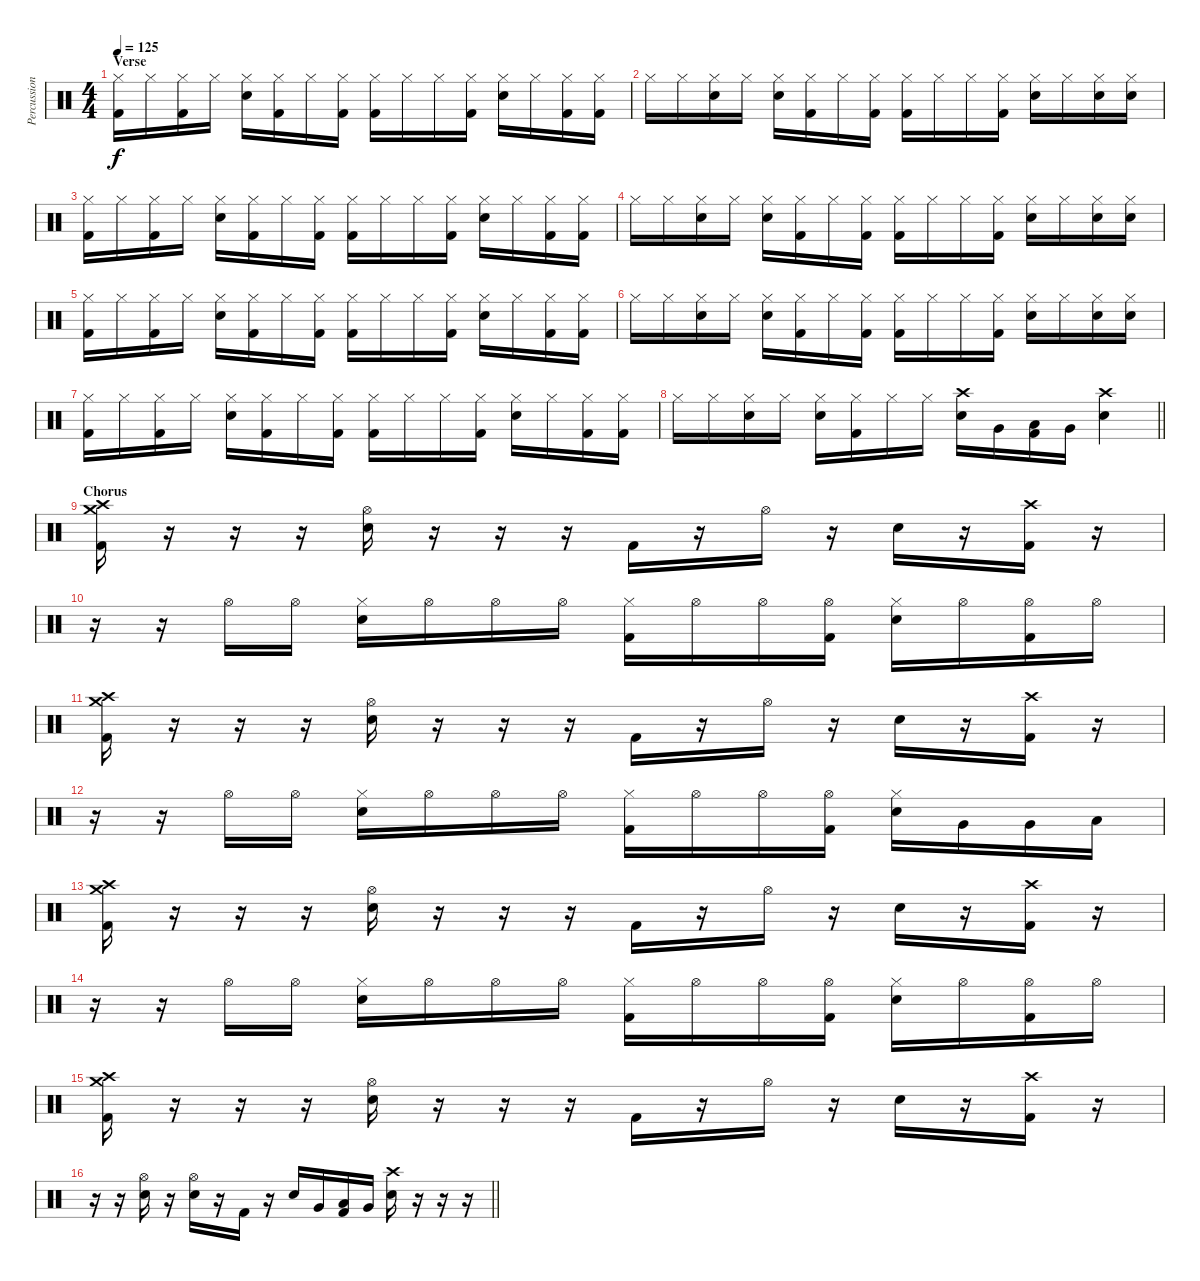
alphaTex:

\track ("Percussion" "Percussion") {instrument percussion}
\staff {score}
\articulation defaults
\ts (4 4)
\section ("" "Verse")
\tempo 125
\clef neutral
\ks c
("Hi-Hat (closed)" "Kick (hit) 2").16{dy f} "Hi-Hat (closed)".16 ("Hi-Hat (closed)" "Kick (hit) 2").16 "Hi-Hat (closed)".16 ("Hi-Hat (closed)" "Electric Snare (hit)").16 ("Hi-Hat (closed)" "Kick (hit) 2").16 "Hi-Hat (closed)".16 ("Hi-Hat (closed)" "Kick (hit) 2").16 ("Hi-Hat (closed)" "Kick (hit) 2").16 "Hi-Hat (closed)".16 "Hi-Hat (closed)".16 ("Hi-Hat (closed)" "Kick (hit) 2").16 ("Hi-Hat (closed)" "Electric Snare (hit)").16 "Hi-Hat (closed)".16 ("Hi-Hat (closed)" "Kick (hit) 2").16 ("Hi-Hat (closed)" "Kick (hit) 2").16 |
"Hi-Hat (closed)".16 "Hi-Hat (closed)".16 ("Hi-Hat (closed)" "Electric Snare (hit)").16 "Hi-Hat (closed)".16 ("Hi-Hat (closed)" "Electric Snare (hit)").16 ("Hi-Hat (closed)" "Kick (hit) 2").16 "Hi-Hat (closed)".16 ("Hi-Hat (closed)" "Kick (hit) 2").16 ("Hi-Hat (closed)" "Kick (hit) 2").16 "Hi-Hat (closed)".16 "Hi-Hat (closed)".16 ("Hi-Hat (closed)" "Kick (hit) 2").16 ("Hi-Hat (closed)" "Electric Snare (hit)").16 "Hi-Hat (closed)".16 ("Hi-Hat (closed)" "Electric Snare (hit)").16 ("Hi-Hat (closed)" "Electric Snare (hit)").16 |
("Hi-Hat (closed)" "Kick (hit) 2").16 "Hi-Hat (closed)".16 ("Hi-Hat (closed)" "Kick (hit) 2").16 "Hi-Hat (closed)".16 ("Hi-Hat (closed)" "Electric Snare (hit)").16 ("Hi-Hat (closed)" "Kick (hit) 2").16 "Hi-Hat (closed)".16 ("Hi-Hat (closed)" "Kick (hit) 2").16 ("Hi-Hat (closed)" "Kick (hit) 2").16 "Hi-Hat (closed)".16 "Hi-Hat (closed)".16 ("Hi-Hat (closed)" "Kick (hit) 2").16 ("Hi-Hat (closed)" "Electric Snare (hit)").16 "Hi-Hat (closed)".16 ("Hi-Hat (closed)" "Kick (hit) 2").16 ("Hi-Hat (closed)" "Kick (hit) 2").16 |
"Hi-Hat (closed)".16 "Hi-Hat (closed)".16 ("Hi-Hat (closed)" "Electric Snare (hit)").16 "Hi-Hat (closed)".16 ("Hi-Hat (closed)" "Electric Snare (hit)").16 ("Hi-Hat (closed)" "Kick (hit) 2").16 "Hi-Hat (closed)".16 ("Hi-Hat (closed)" "Kick (hit) 2").16 ("Hi-Hat (closed)" "Kick (hit) 2").16 "Hi-Hat (closed)".16 "Hi-Hat (closed)".16 ("Hi-Hat (closed)" "Kick (hit) 2").16 ("Hi-Hat (closed)" "Electric Snare (hit)").16 "Hi-Hat (closed)".16 ("Hi-Hat (closed)" "Electric Snare (hit)").16 ("Hi-Hat (closed)" "Electric Snare (hit)").16 |
("Hi-Hat (closed)" "Kick (hit) 2").16 "Hi-Hat (closed)".16 ("Hi-Hat (closed)" "Kick (hit) 2").16 "Hi-Hat (closed)".16 ("Hi-Hat (closed)" "Electric Snare (hit)").16 ("Hi-Hat (closed)" "Kick (hit) 2").16 "Hi-Hat (closed)".16 ("Hi-Hat (closed)" "Kick (hit) 2").16 ("Hi-Hat (closed)" "Kick (hit) 2").16 "Hi-Hat (closed)".16 "Hi-Hat (closed)".16 ("Hi-Hat (closed)" "Kick (hit) 2").16 ("Hi-Hat (closed)" "Electric Snare (hit)").16 "Hi-Hat (closed)".16 ("Hi-Hat (closed)" "Kick (hit) 2").16 ("Hi-Hat (closed)" "Kick (hit) 2").16 |
"Hi-Hat (closed)".16 "Hi-Hat (closed)".16 ("Hi-Hat (closed)" "Electric Snare (hit)").16 "Hi-Hat (closed)".16 ("Hi-Hat (closed)" "Electric Snare (hit)").16 ("Hi-Hat (closed)" "Kick (hit) 2").16 "Hi-Hat (closed)".16 ("Hi-Hat (closed)" "Kick (hit) 2").16 ("Hi-Hat (closed)" "Kick (hit) 2").16 "Hi-Hat (closed)".16 "Hi-Hat (closed)".16 ("Hi-Hat (closed)" "Kick (hit) 2").16 ("Hi-Hat (closed)" "Electric Snare (hit)").16 "Hi-Hat (closed)".16 ("Hi-Hat (closed)" "Electric Snare (hit)").16 ("Hi-Hat (closed)" "Electric Snare (hit)").16 |
("Hi-Hat (closed)" "Kick (hit) 2").16 "Hi-Hat (closed)".16 ("Hi-Hat (closed)" "Kick (hit) 2").16 "Hi-Hat (closed)".16 ("Hi-Hat (closed)" "Electric Snare (hit)").16 ("Hi-Hat (closed)" "Kick (hit) 2").16 "Hi-Hat (closed)".16 ("Hi-Hat (closed)" "Kick (hit) 2").16 ("Hi-Hat (closed)" "Kick (hit) 2").16 "Hi-Hat (closed)".16 "Hi-Hat (closed)".16 ("Hi-Hat (closed)" "Kick (hit) 2").16 ("Hi-Hat (closed)" "Electric Snare (hit)").16 "Hi-Hat (closed)".16 ("Hi-Hat (closed)" "Kick (hit) 2").16 ("Hi-Hat (closed)" "Kick (hit) 2").16 |
\barLineRight lightlight "Hi-Hat (closed)".16 "Hi-Hat (closed)".16
("Hi-Hat (closed)" "Electric Snare (hit)").16 "Hi-Hat (closed)".16 ("Hi-Hat (closed)" "Electric Snare (hit)").16 ("Hi-Hat (closed)" "Kick (hit) 2").16 "Hi-Hat (closed)".16 "Hi-Hat (closed)".16 ("Crash high (hit)" "Electric Snare (hit)").16 "Very Low Tom (hit)".16 ("Low Floor Tom (hit)" "Kick (hit) 2").16 "Very Low Tom (hit)".16 ("Crash high (hit)" "Electric Snare (hit)").4 |
\section ("" "Chorus")
("Crash medium (hit)" "Crash high (hit)" "Kick (hit) 2").16 r.16 r.16 r.16 ("Hi-Hat (open)" "Electric Snare (hit)").16 r.16 r.16 r.16 "Kick (hit) 2".16 r.16 "Hi-Hat (open)".16 r.16 "Electric Snare (hit)".16 r.16 ("Crash high (hit)" "Kick (hit) 2").16 r.16 |
r.16 r.16 "Hi-Hat (open)".16 "Hi-Hat (open)".16 ("Hi-Hat (closed)" "Electric Snare (hit)").16 "Hi-Hat (open)".16 "Hi-Hat (open)".16 "Hi-Hat (open)".16 ("Hi-Hat (closed)" "Kick (hit) 2").16 "Hi-Hat (open)".16 "Hi-Hat (open)".16 ("Hi-Hat (open)" "Kick (hit) 2").16 ("Hi-Hat (closed)" "Electric Snare (hit)").16 "Hi-Hat (open)".16 ("Hi-Hat (open)" "Kick (hit) 2").16 "Hi-Hat (open)".16 |
("Crash medium (hit)" "Crash high (hit)" "Kick (hit) 2").16 r.16 r.16 r.16 ("Hi-Hat (open)" "Electric Snare (hit)").16 r.16 r.16 r.16 "Kick (hit) 2".16 r.16 "Hi-Hat (open)".16 r.16 "Electric Snare (hit)".16 r.16 ("Crash high (hit)" "Kick (hit) 2").16 r.16 |
r.16 r.16 "Hi-Hat (open)".16 "Hi-Hat (open)".16 ("Hi-Hat (closed)" "Electric Snare (hit)").16 "Hi-Hat (open)".16 "Hi-Hat (open)".16 "Hi-Hat (open)".16 ("Hi-Hat (closed)" "Kick (hit) 2").16 "Hi-Hat (open)".16 "Hi-Hat (open)".16 ("Hi-Hat (open)" "Kick (hit) 2").16 ("Hi-Hat (closed)" "Electric Snare (hit)").16 "Very Low Tom (hit)".16 "Very Low Tom (hit)".16 "Low Floor Tom (hit)".16 |
("Crash medium (hit)" "Crash high (hit)" "Kick (hit) 2").16 r.16 r.16 r.16 ("Hi-Hat (open)" "Electric Snare (hit)").16 r.16 r.16 r.16 "Kick (hit) 2".16 r.16 "Hi-Hat (open)".16 r.16 "Electric Snare (hit)".16 r.16 ("Crash high (hit)" "Kick (hit) 2").16 r.16 |
r.16 r.16 "Hi-Hat (open)".16 "Hi-Hat (open)".16 ("Hi-Hat (closed)" "Electric Snare (hit)").16 "Hi-Hat (open)".16 "Hi-Hat (open)".16 "Hi-Hat (open)".16 ("Hi-Hat (closed)" "Kick (hit) 2").16 "Hi-Hat (open)".16 "Hi-Hat (open)".16 ("Hi-Hat (open)" "Kick (hit) 2").16 ("Hi-Hat (closed)" "Electric Snare (hit)").16 "Hi-Hat (open)".16 ("Hi-Hat (open)" "Kick (hit) 2").16 "Hi-Hat (open)".16 |
("Crash medium (hit)" "Crash high (hit)" "Kick (hit) 2").16 r.16 r.16 r.16 ("Hi-Hat (open)" "Electric Snare (hit)").16 r.16 r.16 r.16 "Kick (hit) 2".16 r.16 "Hi-Hat (open)".16 r.16 "Electric Snare (hit)".16 r.16 ("Crash high (hit)" "Kick (hit) 2").16 r.16 |
\barLineRight lightlight
r.16 r.16 ("Hi-Hat (open)" "Electric Snare (hit)").16 r.16 ("Hi-Hat (open)" "Electric Snare (hit)").16 r.16 "Kick (hit) 2".16 r.16 "Electric Snare (hit)".16 "Very Low Tom (hit)".16 ("Low Floor Tom (hit)" "Kick (hit) 2").16 "Very Low Tom (hit)".16 ("Crash high (hit)" "Electric Snare (hit)").16 r.16 r.16 r.16
